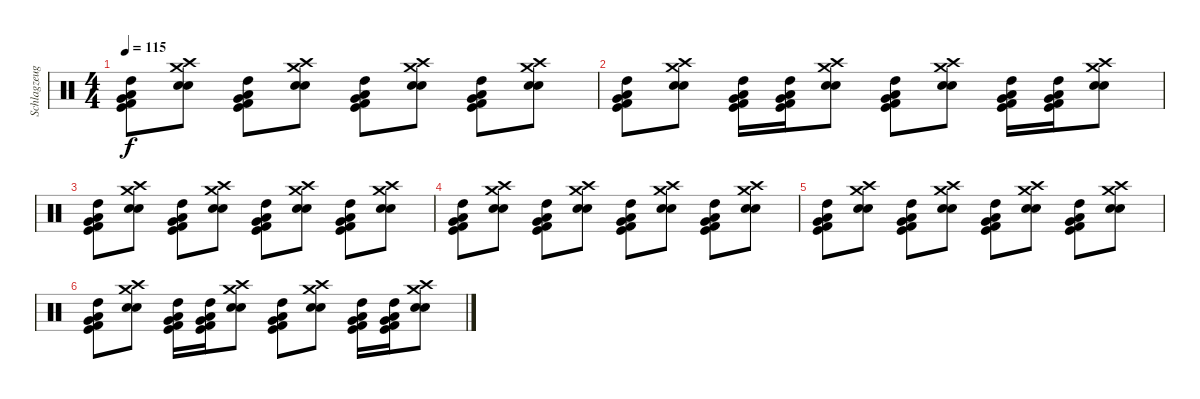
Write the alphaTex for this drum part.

\track ("Schlagzeug" "Schlagzeug") {instrument percussion}
\staff {score}
\articulation defaults
\ts (4 4)
\tempo 115
\clef neutral
\ks c
("Kick (hit) 2" "Kick (hit)" "High Tom (hit)" "Low Tom (hit)" "Very Low Tom (hit)").8{dy f} ("Snare (hit) 2" "Electric Snare (hit)" "Crash medium (hit)" "Crash high (hit)").8 ("Kick (hit) 2" "Kick (hit)" "High Tom (hit)" "Low Tom (hit)" "Very Low Tom (hit)").8 ("Snare (hit) 2" "Electric Snare (hit)" "Crash medium (hit)" "Crash high (hit)").8 ("Kick (hit) 2" "Kick (hit)" "High Tom (hit)" "Low Tom (hit)" "Very Low Tom (hit)").8 ("Snare (hit) 2" "Electric Snare (hit)" "Crash medium (hit)" "Crash high (hit)").8 ("Kick (hit) 2" "Kick (hit)" "High Tom (hit)" "Low Tom (hit)" "Very Low Tom (hit)").8 ("Snare (hit) 2" "Electric Snare (hit)" "Crash medium (hit)" "Crash high (hit)").8 |
("Kick (hit) 2" "Kick (hit)" "High Tom (hit)" "Low Tom (hit)" "Very Low Tom (hit)").8 ("Snare (hit) 2" "Electric Snare (hit)" "Crash medium (hit)" "Crash high (hit)").8 ("Kick (hit) 2" "Kick (hit)" "High Tom (hit)" "Low Tom (hit)" "Very Low Tom (hit)").16 ("Kick (hit) 2" "Kick (hit)" "High Tom (hit)" "Low Tom (hit)" "Very Low Tom (hit)").16 ("Snare (hit) 2" "Electric Snare (hit)" "Crash medium (hit)" "Crash high (hit)").8 ("Kick (hit) 2" "Kick (hit)" "High Tom (hit)" "Low Tom (hit)" "Very Low Tom (hit)").8 ("Snare (hit) 2" "Electric Snare (hit)" "Crash medium (hit)" "Crash high (hit)").8 ("Kick (hit) 2" "Kick (hit)" "High Tom (hit)" "Low Tom (hit)" "Very Low Tom (hit)").16 ("Kick (hit) 2" "Kick (hit)" "High Tom (hit)" "Low Tom (hit)" "Very Low Tom (hit)").16 ("Snare (hit) 2" "Electric Snare (hit)" "Crash medium (hit)" "Crash high (hit)").8 |
("Kick (hit) 2" "Kick (hit)" "High Tom (hit)" "Low Tom (hit)" "Very Low Tom (hit)").8 ("Snare (hit) 2" "Electric Snare (hit)" "Crash medium (hit)" "Crash high (hit)").8 ("Kick (hit) 2" "Kick (hit)" "High Tom (hit)" "Low Tom (hit)" "Very Low Tom (hit)").8 ("Snare (hit) 2" "Electric Snare (hit)" "Crash medium (hit)" "Crash high (hit)").8 ("Kick (hit) 2" "Kick (hit)" "High Tom (hit)" "Low Tom (hit)" "Very Low Tom (hit)").8 ("Snare (hit) 2" "Electric Snare (hit)" "Crash medium (hit)" "Crash high (hit)").8 ("Kick (hit) 2" "Kick (hit)" "High Tom (hit)" "Low Tom (hit)" "Very Low Tom (hit)").8 ("Snare (hit) 2" "Electric Snare (hit)" "Crash medium (hit)" "Crash high (hit)").8 |
("Kick (hit) 2" "Kick (hit)" "High Tom (hit)" "Low Tom (hit)" "Very Low Tom (hit)").8 ("Snare (hit) 2" "Electric Snare (hit)" "Crash medium (hit)" "Crash high (hit)").8 ("Kick (hit) 2" "Kick (hit)" "High Tom (hit)" "Low Tom (hit)" "Very Low Tom (hit)").8 ("Snare (hit) 2" "Electric Snare (hit)" "Crash medium (hit)" "Crash high (hit)").8 ("Kick (hit) 2" "Kick (hit)" "High Tom (hit)" "Low Tom (hit)" "Very Low Tom (hit)").8 ("Snare (hit) 2" "Electric Snare (hit)" "Crash medium (hit)" "Crash high (hit)").8 ("Kick (hit) 2" "Kick (hit)" "High Tom (hit)" "Low Tom (hit)" "Very Low Tom (hit)").8 ("Snare (hit) 2" "Electric Snare (hit)" "Crash medium (hit)" "Crash high (hit)").8 |
("Kick (hit) 2" "Kick (hit)" "High Tom (hit)" "Low Tom (hit)" "Very Low Tom (hit)").8 ("Snare (hit) 2" "Electric Snare (hit)" "Crash medium (hit)" "Crash high (hit)").8 ("Kick (hit) 2" "Kick (hit)" "High Tom (hit)" "Low Tom (hit)" "Very Low Tom (hit)").8 ("Snare (hit) 2" "Electric Snare (hit)" "Crash medium (hit)" "Crash high (hit)").8 ("Kick (hit) 2" "Kick (hit)" "High Tom (hit)" "Low Tom (hit)" "Very Low Tom (hit)").8 ("Snare (hit) 2" "Electric Snare (hit)" "Crash medium (hit)" "Crash high (hit)").8 ("Kick (hit) 2" "Kick (hit)" "High Tom (hit)" "Low Tom (hit)" "Very Low Tom (hit)").8 ("Snare (hit) 2" "Electric Snare (hit)" "Crash medium (hit)" "Crash high (hit)").8 |
("Kick (hit) 2" "Kick (hit)" "High Tom (hit)" "Low Tom (hit)" "Very Low Tom (hit)").8 ("Snare (hit) 2" "Electric Snare (hit)" "Crash medium (hit)" "Crash high (hit)").8 ("Kick (hit) 2" "Kick (hit)" "High Tom (hit)" "Low Tom (hit)" "Very Low Tom (hit)").16 ("Kick (hit) 2" "Kick (hit)" "High Tom (hit)" "Low Tom (hit)" "Very Low Tom (hit)").16 ("Snare (hit) 2" "Electric Snare (hit)" "Crash medium (hit)" "Crash high (hit)").8 ("Kick (hit) 2" "Kick (hit)" "High Tom (hit)" "Low Tom (hit)" "Very Low Tom (hit)").8 ("Snare (hit) 2" "Electric Snare (hit)" "Crash medium (hit)" "Crash high (hit)").8 ("Kick (hit) 2" "Kick (hit)" "High Tom (hit)" "Low Tom (hit)" "Very Low Tom (hit)").16 ("Kick (hit) 2" "Kick (hit)" "High Tom (hit)" "Low Tom (hit)" "Very Low Tom (hit)").16 ("Snare (hit) 2" "Electric Snare (hit)" "Crash medium (hit)" "Crash high (hit)").8
